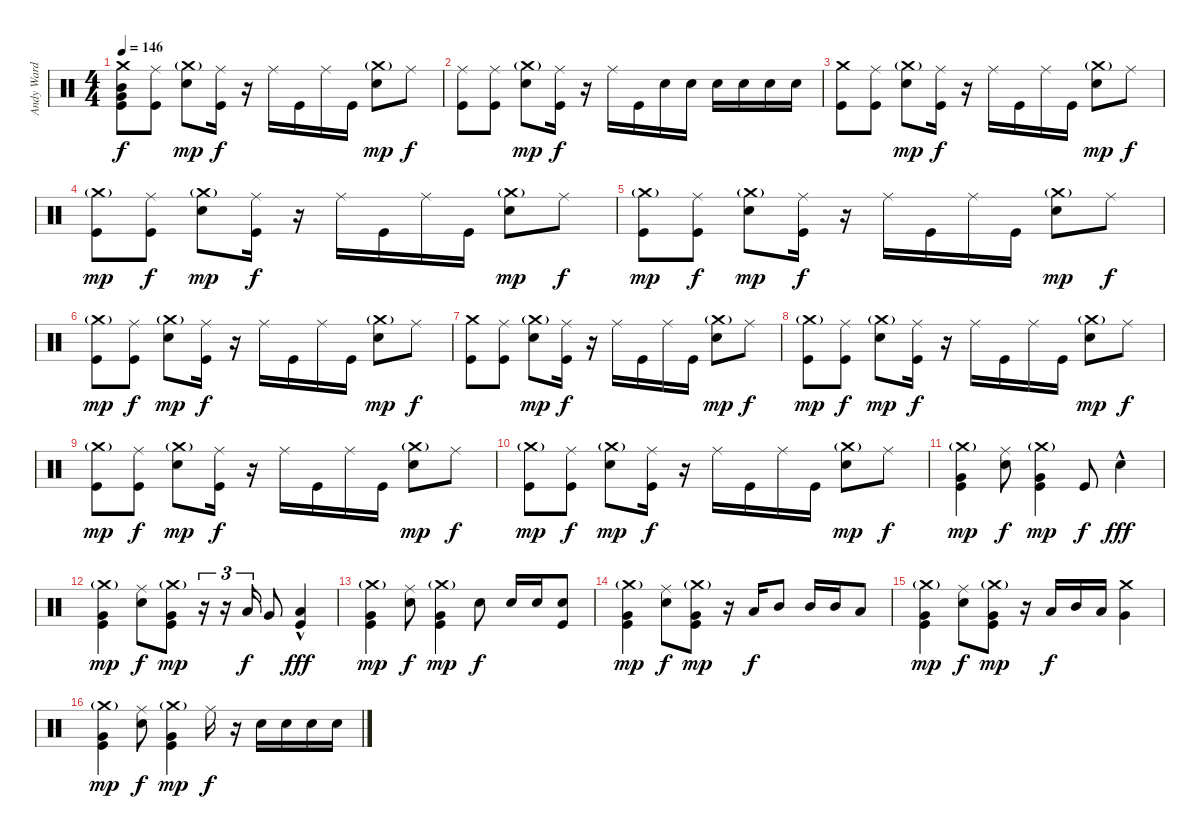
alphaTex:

\track ("Andy Ward (Drums)" "Andy Ward ") {instrument percussion}
\staff {score}
\articulation defaults
\ts (4 4)
\tempo 146
\clef neutral
\ks c
("Crash medium (hit)" "Mid Tom (hit)" "Very Low Tom (hit)" "Kick (hit)").8{dy f} ("Ride (middle)" "Kick (hit)").8 ("Crash medium (hit)"{g} "Electric Snare (hit)").8{dy mp} ("Ride (middle)" "Kick (hit)").16{dy f} r.16 "Ride (middle)".16 "Kick (hit)".16 "Ride (middle)".16 "Kick (hit)".16 ("Crash medium (hit)"{g} "Electric Snare (hit)").8{dy mp} "Ride (middle)".8{dy f} |
("Ride (middle)" "Kick (hit)").8 ("Ride (middle)" "Kick (hit)").8 ("Crash medium (hit)"{g} "Electric Snare (hit)").8{dy mp} ("Ride (middle)" "Kick (hit)").16{dy f} r.16 "Ride (middle)".16 "Kick (hit)".16 "Electric Snare (hit)".16 "Electric Snare (hit)".16 "Electric Snare (hit)".16 "Electric Snare (hit)".16 "Electric Snare (hit)".16 "Electric Snare (hit)".16 |
("Crash medium (hit)" "Kick (hit)").8 ("Ride (middle)" "Kick (hit)").8 ("Crash medium (hit)"{g} "Electric Snare (hit)").8{dy mp} ("Ride (middle)" "Kick (hit)").16{dy f} r.16 "Ride (middle)".16 "Kick (hit)".16 "Ride (middle)".16 "Kick (hit)".16 ("Crash medium (hit)"{g} "Electric Snare (hit)").8{dy mp} "Ride (middle)".8{dy f} |
("Crash medium (hit)"{g} "Kick (hit)").8{dy mp} ("Ride (middle)" "Kick (hit)").8{dy f} ("Crash medium (hit)"{g} "Electric Snare (hit)").8{dy mp} ("Ride (middle)" "Kick (hit)").16{dy f} r.16 "Ride (middle)".16 "Kick (hit)".16 "Ride (middle)".16 "Kick (hit)".16 ("Crash medium (hit)"{g} "Electric Snare (hit)").8{dy mp} "Ride (middle)".8{dy f} |
("Crash medium (hit)"{g} "Kick (hit)").8{dy mp} ("Ride (middle)" "Kick (hit)").8{dy f} ("Crash medium (hit)"{g} "Electric Snare (hit)").8{dy mp} ("Ride (middle)" "Kick (hit)").16{dy f} r.16 "Ride (middle)".16 "Kick (hit)".16 "Ride (middle)".16 "Kick (hit)".16 ("Crash medium (hit)"{g} "Electric Snare (hit)").8{dy mp} "Ride (middle)".8{dy f} |
("Crash medium (hit)"{g} "Kick (hit)").8{dy mp} ("Ride (middle)" "Kick (hit)").8{dy f} ("Crash medium (hit)"{g} "Electric Snare (hit)").8{dy mp} ("Ride (middle)" "Kick (hit)").16{dy f} r.16 "Ride (middle)".16 "Kick (hit)".16 "Ride (middle)".16 "Kick (hit)".16 ("Crash medium (hit)"{g} "Electric Snare (hit)").8{dy mp} "Ride (middle)".8{dy f} |
("Crash medium (hit)" "Kick (hit)").8 ("Ride (middle)" "Kick (hit)").8 ("Crash medium (hit)"{g} "Electric Snare (hit)").8{dy mp} ("Ride (middle)" "Kick (hit)").16{dy f} r.16 "Ride (middle)".16 "Kick (hit)".16 "Ride (middle)".16 "Kick (hit)".16 ("Crash medium (hit)"{g} "Electric Snare (hit)").8{dy mp} "Ride (middle)".8{dy f} |
("Crash medium (hit)"{g} "Kick (hit)").8{dy mp} ("Ride (middle)" "Kick (hit)").8{dy f} ("Crash medium (hit)"{g} "Electric Snare (hit)").8{dy mp} ("Ride (middle)" "Kick (hit)").16{dy f} r.16 "Ride (middle)".16 "Kick (hit)".16 "Ride (middle)".16 "Kick (hit)".16 ("Crash medium (hit)"{g} "Electric Snare (hit)").8{dy mp} "Ride (middle)".8{dy f} |
("Crash medium (hit)"{g} "Kick (hit)").8{dy mp} ("Ride (middle)" "Kick (hit)").8{dy f} ("Crash medium (hit)"{g} "Electric Snare (hit)").8{dy mp} ("Ride (middle)" "Kick (hit)").16{dy f} r.16 "Ride (middle)".16 "Kick (hit)".16 "Ride (middle)".16 "Kick (hit)".16 ("Crash medium (hit)"{g} "Electric Snare (hit)").8{dy mp} "Ride (middle)".8{dy f} |
("Crash medium (hit)"{g} "Kick (hit)").8{dy mp} ("Ride (middle)" "Kick (hit)").8{dy f} ("Crash medium (hit)"{g} "Electric Snare (hit)").8{dy mp} ("Ride (middle)" "Kick (hit)").16{dy f} r.16 "Ride (middle)".16 "Kick (hit)".16 "Ride (middle)".16 "Kick (hit)".16 ("Crash medium (hit)"{g} "Electric Snare (hit)").8{dy mp} "Ride (middle)".8{dy f} |
("Crash medium (hit)"{g} "Very Low Tom (hit)" "Kick (hit)").4{dy mp} ("Ride (middle)" "Electric Snare (hit)").8{dy f} ("Crash medium (hit)"{g} "Very Low Tom (hit)" "Kick (hit)").4{dy mp} "Kick (hit)".8{dy f} "Electric Snare (hit)"{hac}.4{dy fff} |
("Crash medium (hit)"{g} "Very Low Tom (hit)" "Kick (hit)").4{dy mp} ("Ride (middle)" "Electric Snare (hit)").8{dy f} ("Crash medium (hit)"{g} "Very Low Tom (hit)" "Kick (hit)").8{dy mp} r.16{tu (3 2)} r.16{tu (3 2)} "Low Tom (hit)".16{tu (3 2) dy f} "Very Low Tom (hit)".8 ("Low Floor Tom (hit)"{hac} "Kick (hit)").4{dy fff} |
("Crash medium (hit)"{g} "Very Low Tom (hit)" "Kick (hit)").4{dy mp} ("Ride (middle)" "Electric Snare (hit)").8{dy f} ("Crash medium (hit)"{g} "Very Low Tom (hit)" "Kick (hit)").4{dy mp} "Electric Snare (hit)".8{dy f} "Electric Snare (hit)".16 "Electric Snare (hit)".16 ("Electric Snare (hit)" "Kick (hit)").8 |
("Crash medium (hit)"{g} "Very Low Tom (hit)" "Kick (hit)").4{dy mp} ("Ride (middle)" "Electric Snare (hit)").8{dy f} ("Crash medium (hit)"{g} "Very Low Tom (hit)" "Kick (hit)").8{dy mp} r.16 "Low Tom (hit)".16{dy f} "Mid Tom (hit)".8 "Mid Tom (hit)".16 "Mid Tom (hit)".16 "Low Tom (hit)".8 |
("Crash medium (hit)"{g} "Very Low Tom (hit)" "Kick (hit)").4{dy mp} ("Ride (middle)" "Electric Snare (hit)").8{dy f} ("Crash medium (hit)"{g} "Very Low Tom (hit)" "Kick (hit)").8{dy mp} r.16 "Low Tom (hit)".16{dy f} "Mid Tom (hit)".16 "Low Tom (hit)".16 ("Crash medium (hit)" "Very Low Tom (hit)").4 |
("Crash medium (hit)"{g} "Very Low Tom (hit)" "Kick (hit)").4{dy mp} ("Ride (middle)" "Electric Snare (hit)").8{dy f} ("Crash medium (hit)"{g} "Very Low Tom (hit)" "Kick (hit)").4{dy mp} "Ride (middle)".16{dy f} r.16 "Electric Snare (hit)".16 "Electric Snare (hit)".16 "Electric Snare (hit)".16 "Electric Snare (hit)".16
